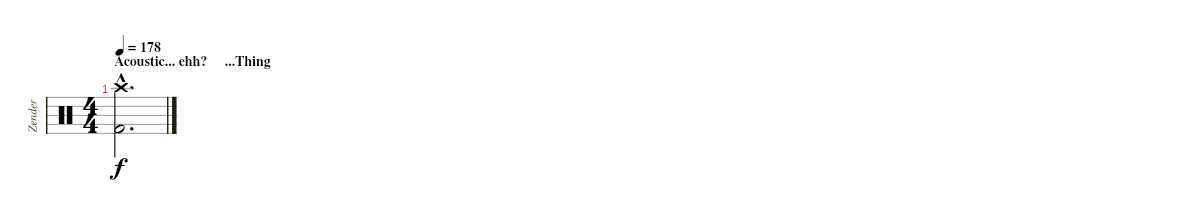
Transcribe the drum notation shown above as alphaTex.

\track ("Zender" "Zender") {instrument percussion}
\staff {score}
\articulation defaults
\ts (4 4)
\section ("" "Acoustic... ehh?     ...Thing")
\tempo 178
\clef neutral
\ks c
("Crash high (hit)"{hac} "Kick (hit) 2"{hac}).2{d dy f}
